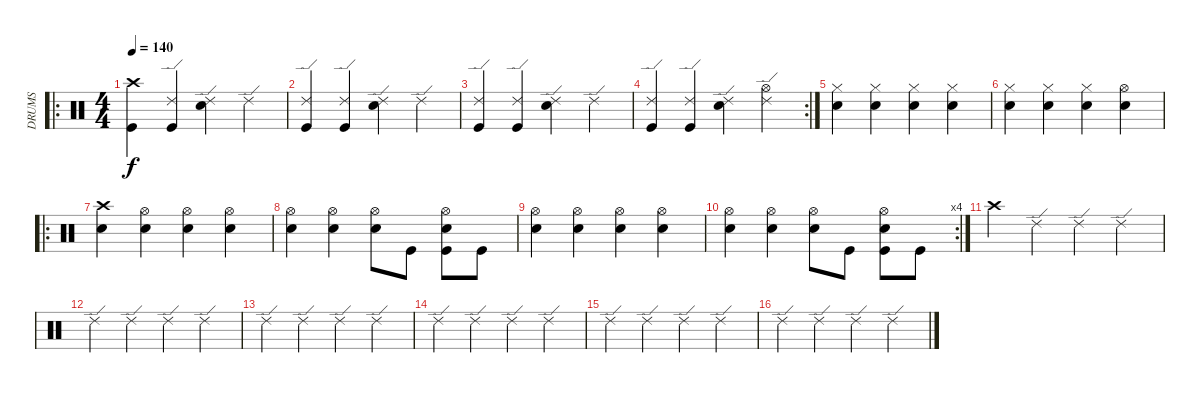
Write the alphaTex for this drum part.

\track ("DRUMS" "DRUMS") {instrument percussion}
\staff {score}
\articulation defaults
\ro
\ts (4 4)
\tempo 140
\clef neutral
\ks c
("Crash high (hit)" "Kick (hit)").4{dy f} ("Ride (edge) 2" "Kick (hit)").4 ("Ride (edge) 2" "Electric Snare (hit)").4 "Ride (edge) 2".4 |
("Ride (edge) 2" "Kick (hit)").4 ("Ride (edge) 2" "Kick (hit)").4 ("Ride (edge) 2" "Electric Snare (hit)").4 "Ride (edge) 2".4 |
("Ride (edge) 2" "Kick (hit)").4 ("Ride (edge) 2" "Kick (hit)").4 ("Ride (edge) 2" "Electric Snare (hit)").4 "Ride (edge) 2".4 |
\rc 2
("Ride (edge) 2" "Kick (hit)").4 ("Ride (edge) 2" "Kick (hit)").4 ("Ride (edge) 2" "Electric Snare (hit)").4 ("Ride (edge) 2" "Hi-Hat (open)").4 |
("Hi-Hat (closed)" "Electric Snare (hit)").4 ("Hi-Hat (closed)" "Electric Snare (hit)").4 ("Hi-Hat (closed)" "Electric Snare (hit)").4 ("Hi-Hat (closed)" "Electric Snare (hit)").4 |
("Hi-Hat (closed)" "Electric Snare (hit)").4 ("Hi-Hat (closed)" "Electric Snare (hit)").4 ("Hi-Hat (closed)" "Electric Snare (hit)").4 ("Hi-Hat (open)" "Electric Snare (hit)").4 |
\ro
("Crash high (hit)" "Electric Snare (hit)").4 ("Hi-Hat (open)" "Electric Snare (hit)").4 ("Hi-Hat (open)" "Electric Snare (hit)").4 ("Hi-Hat (open)" "Electric Snare (hit)").4 |
("Hi-Hat (open)" "Electric Snare (hit)").4 ("Hi-Hat (open)" "Electric Snare (hit)").4 ("Hi-Hat (open)" "Electric Snare (hit)").8 "Kick (hit)".8 ("Electric Snare (hit)" "Kick (hit)" "Hi-Hat (open)").8 "Kick (hit)".8 |
("Hi-Hat (open)" "Electric Snare (hit)").4 ("Hi-Hat (open)" "Electric Snare (hit)").4 ("Hi-Hat (open)" "Electric Snare (hit)").4 ("Hi-Hat (open)" "Electric Snare (hit)").4 |
\rc 4
("Hi-Hat (open)" "Electric Snare (hit)").4 ("Hi-Hat (open)" "Electric Snare (hit)").4 ("Hi-Hat (open)" "Electric Snare (hit)").8 "Kick (hit)".8 ("Electric Snare (hit)" "Kick (hit)" "Hi-Hat (open)").8 "Kick (hit)".8 |
"Crash high (hit)".4 "Ride (edge) 2".4 "Ride (edge) 2".4 "Ride (edge) 2".4 |
"Ride (edge) 2".4 "Ride (edge) 2".4 "Ride (edge) 2".4 "Ride (edge) 2".4 |
"Ride (edge) 2".4 "Ride (edge) 2".4 "Ride (edge) 2".4 "Ride (edge) 2".4 |
"Ride (edge) 2".4 "Ride (edge) 2".4 "Ride (edge) 2".4 "Ride (edge) 2".4 |
"Ride (edge) 2".4 "Ride (edge) 2".4 "Ride (edge) 2".4 "Ride (edge) 2".4 |
"Ride (edge) 2".4 "Ride (edge) 2".4 "Ride (edge) 2".4 "Ride (edge) 2".4
